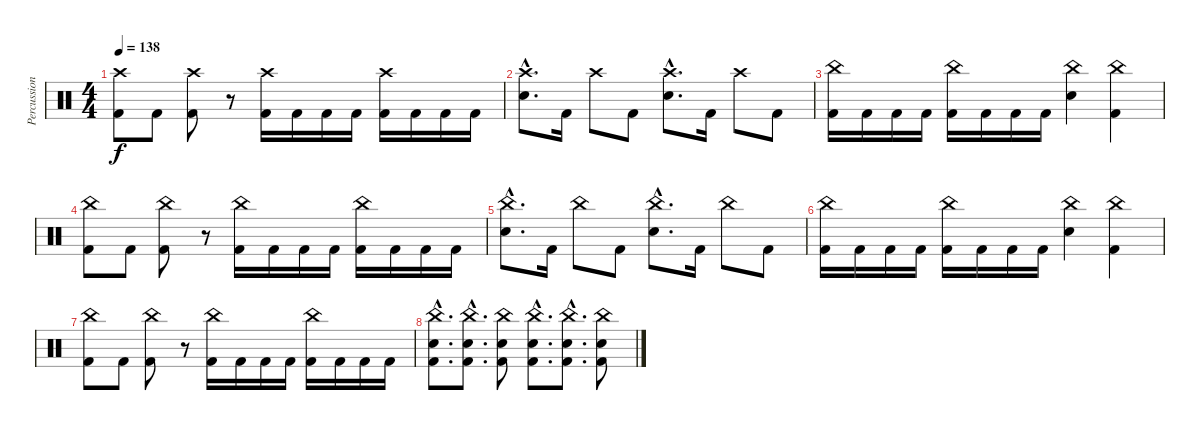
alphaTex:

\track ("Percussion" "Percussion") {instrument percussion}
\staff {score}
\articulation defaults
\ts (4 4)
\tempo 138
\clef neutral
\ks c
("Crash high (hit)" "Kick (hit) 2").8{dy f} "Kick (hit) 2".8 ("Crash high (hit)" "Kick (hit) 2").8 r.8 ("Crash high (hit)" "Kick (hit) 2").16 "Kick (hit) 2".16 "Kick (hit) 2".16 "Kick (hit) 2".16 ("Crash high (hit)" "Kick (hit) 2").16 "Kick (hit) 2".16 "Kick (hit) 2".16 "Kick (hit) 2".16 |
("Crash high (hit)"{hac} "Electric Snare (hit)"{hac}).8{d} "Kick (hit) 2".16 "Crash high (hit)".8 "Kick (hit) 2".8 ("Crash high (hit)"{hac} "Electric Snare (hit)"{hac}).8{d} "Kick (hit) 2".16 "Crash high (hit)".8 "Kick (hit) 2".8 |
("China (hit)" "Kick (hit) 2").16 "Kick (hit) 2".16 "Kick (hit) 2".16 "Kick (hit) 2".16 ("China (hit)" "Kick (hit) 2").16 "Kick (hit) 2".16 "Kick (hit) 2".16 "Kick (hit) 2".16 ("China (hit)" "Electric Snare (hit)").4 ("China (hit)" "Kick (hit) 2").4 |
("China (hit)" "Kick (hit) 2").8 "Kick (hit) 2".8 ("China (hit)" "Kick (hit) 2").8 r.8 ("China (hit)" "Kick (hit) 2").16 "Kick (hit) 2".16 "Kick (hit) 2".16 "Kick (hit) 2".16 ("China (hit)" "Kick (hit) 2").16 "Kick (hit) 2".16 "Kick (hit) 2".16 "Kick (hit) 2".16 |
("China (hit)"{hac} "Electric Snare (hit)"{hac}).8{d} "Kick (hit) 2".16 "China (hit)".8 "Kick (hit) 2".8 ("China (hit)"{hac} "Electric Snare (hit)"{hac}).8{d} "Kick (hit) 2".16 "China (hit)".8 "Kick (hit) 2".8 |
("China (hit)" "Kick (hit) 2").16 "Kick (hit) 2".16 "Kick (hit) 2".16 "Kick (hit) 2".16 ("China (hit)" "Kick (hit) 2").16 "Kick (hit) 2".16 "Kick (hit) 2".16 "Kick (hit) 2".16 ("China (hit)" "Electric Snare (hit)").4 ("China (hit)" "Kick (hit) 2").4 |
("China (hit)" "Kick (hit) 2").8 "Kick (hit) 2".8 ("China (hit)" "Kick (hit) 2").8 r.8 ("China (hit)" "Kick (hit) 2").16 "Kick (hit) 2".16 "Kick (hit) 2".16 "Kick (hit) 2".16 ("China (hit)" "Kick (hit) 2").16 "Kick (hit) 2".16 "Kick (hit) 2".16 "Kick (hit) 2".16 |
("China (hit)"{hac} "Electric Snare (hit)"{hac} "Kick (hit) 2"{hac}).8{d} ("China (hit)"{hac} "Electric Snare (hit)"{hac} "Kick (hit) 2"{hac}).8{d} ("China (hit)" "Electric Snare (hit)" "Kick (hit) 2").8 ("China (hit)"{hac} "Electric Snare (hit)"{hac} "Kick (hit) 2"{hac}).8{d} ("China (hit)"{hac} "Electric Snare (hit)"{hac} "Kick (hit) 2"{hac}).8{d} ("China (hit)" "Electric Snare (hit)" "Kick (hit) 2").8
